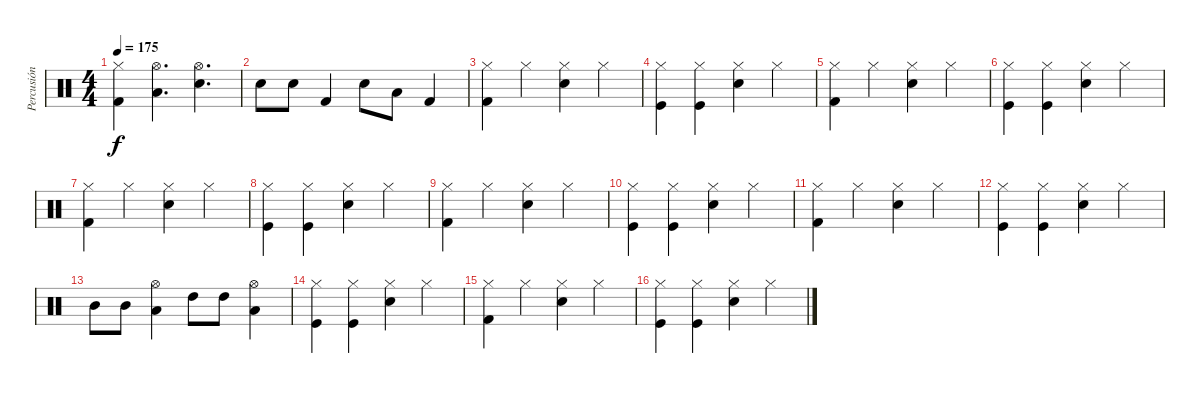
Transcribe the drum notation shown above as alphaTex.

\track ("Percusión" "Percusión") {instrument percussion}
\staff {score}
\articulation defaults
\ts (4 4)
\tempo 175
\clef neutral
\ks c
("Hi-Hat (closed)" "Kick (hit) 2").4{dy f} ("Hi-Hat (open)" "Low Floor Tom (hit)").4{d} ("Hi-Hat (open)" "Electric Snare (hit)").4{d} |
"Snare (hit) 2".8 "Snare (hit) 2".8 "Kick (hit) 2".4 "Snare (hit) 2".8 "Low Floor Tom (hit)".8 "Kick (hit) 2".4 |
("Hi-Hat (closed)" "Kick (hit) 2").4 "Hi-Hat (closed)".4 ("Snare (hit) 2" "Hi-Hat (closed)").4 "Hi-Hat (closed)".4 |
("Kick (hit)" "Hi-Hat (closed)").4 ("Kick (hit)" "Hi-Hat (closed)").4 ("Electric Snare (hit)" "Hi-Hat (closed)").4 "Hi-Hat (closed)".4 |
("Hi-Hat (closed)" "Kick (hit) 2").4 "Hi-Hat (closed)".4 ("Snare (hit) 2" "Hi-Hat (closed)").4 "Hi-Hat (closed)".4 |
("Kick (hit)" "Hi-Hat (closed)").4 ("Kick (hit)" "Hi-Hat (closed)").4 ("Electric Snare (hit)" "Hi-Hat (closed)").4 "Hi-Hat (closed)".4 |
("Hi-Hat (closed)" "Kick (hit) 2").4 "Hi-Hat (closed)".4 ("Snare (hit) 2" "Hi-Hat (closed)").4 "Hi-Hat (closed)".4 |
("Kick (hit)" "Hi-Hat (closed)").4 ("Kick (hit)" "Hi-Hat (closed)").4 ("Electric Snare (hit)" "Hi-Hat (closed)").4 "Hi-Hat (closed)".4 |
("Hi-Hat (closed)" "Kick (hit) 2").4 "Hi-Hat (closed)".4 ("Snare (hit) 2" "Hi-Hat (closed)").4 "Hi-Hat (closed)".4 |
("Kick (hit)" "Hi-Hat (closed)").4 ("Kick (hit)" "Hi-Hat (closed)").4 ("Electric Snare (hit)" "Hi-Hat (closed)").4 "Hi-Hat (closed)".4 |
("Hi-Hat (closed)" "Kick (hit) 2").4 "Hi-Hat (closed)".4 ("Snare (hit) 2" "Hi-Hat (closed)").4 "Hi-Hat (closed)".4 |
("Kick (hit)" "Hi-Hat (closed)").4 ("Kick (hit)" "Hi-Hat (closed)").4 ("Electric Snare (hit)" "Hi-Hat (closed)").4 "Hi-Hat (closed)".4 |
"Mid Tom (hit)".8 "Mid Tom (hit)".8 ("Low Tom (hit)" "Hi-Hat (open)").4 "High Tom (hit)".8 "High Tom (hit)".8 ("Low Tom (hit)" "Hi-Hat (open)").4 |
("Kick (hit)" "Hi-Hat (closed)").4 ("Kick (hit)" "Hi-Hat (closed)").4 ("Electric Snare (hit)" "Hi-Hat (closed)").4 "Hi-Hat (closed)".4 |
("Hi-Hat (closed)" "Kick (hit) 2").4 "Hi-Hat (closed)".4 ("Snare (hit) 2" "Hi-Hat (closed)").4 "Hi-Hat (closed)".4 |
("Kick (hit)" "Hi-Hat (closed)").4 ("Kick (hit)" "Hi-Hat (closed)").4 ("Electric Snare (hit)" "Hi-Hat (closed)").4 "Hi-Hat (closed)".4
